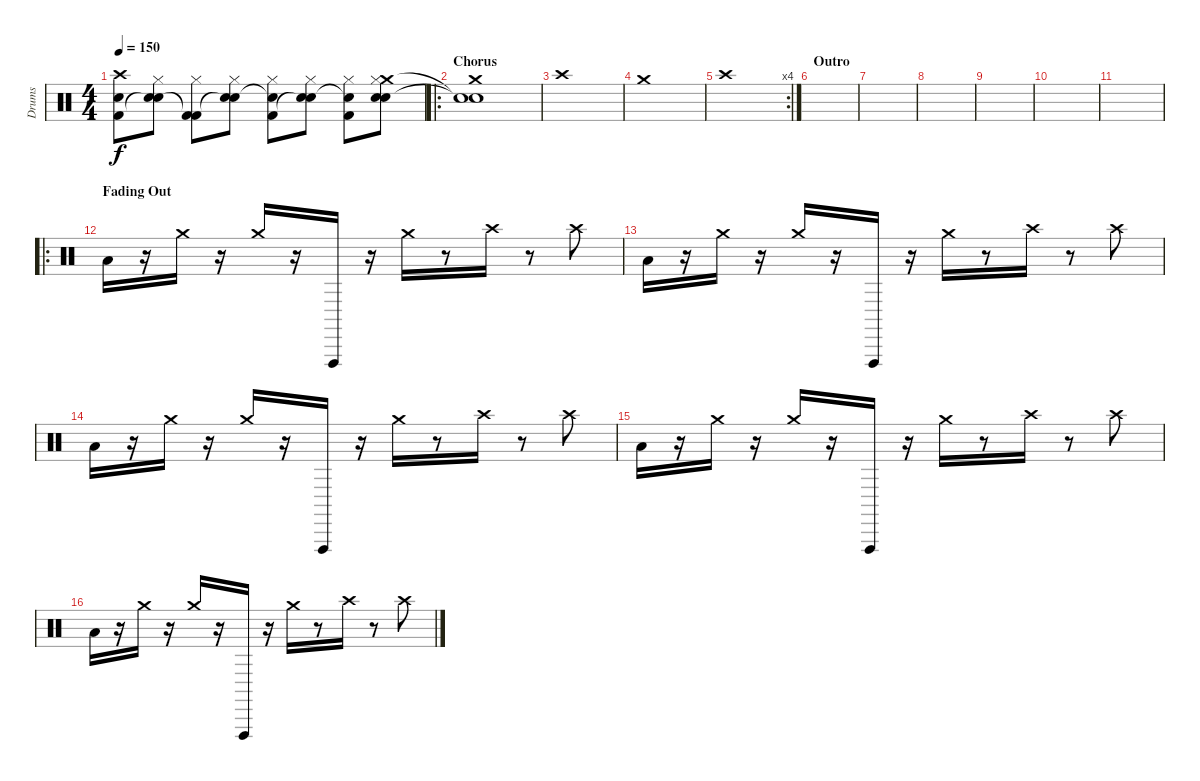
\track ("Drums" "Drums") {instrument percussion}
\staff {score}
\articulation defaults
\ts (4 4)
\tempo 150
\clef neutral
\ks c
("Crash high (hit)" "Snare (hit)"{t} "Kick (hit) 2").8{dy f} ("Hi-Hat (closed)" "Snare (hit) 2" "Snare (hit)"{t}).8 ("Hi-Hat (closed)" "Kick (hit) 2"{t} "Kick (hit) 2").8 ("Hi-Hat (closed)" "Snare (hit) 2" "Snare (hit)"{t}).8 ("Hi-Hat (closed)" "Snare (hit)"{t} "Kick (hit) 2").8 ("Hi-Hat (closed)" "Snare (hit) 2" "Snare (hit)"{t}).8 ("Hi-Hat (closed)" "Snare (hit)"{t} "Kick (hit) 2").8 ("Crash medium (hit)" "Hi-Hat (closed)" "Snare (hit) 2" "Snare (hit)"{t}).8 |
\ro
\section ("" "Chorus")
("Crash medium (hit)" "Snare (hit)"{t} "Snare (hit)"{t}).1 |
"Crash high (hit)".1 |
"Crash medium (hit)".1 |
\rc 4 "Crash high (hit)".1
|
\section ("" "Outro")
|
|
|
|
|
|
\ro
\section ("" "Fading Out")
"Low Floor Tom (hit)".16 r.16 "Crash medium (hit)".16 r.16 "Crash medium (hit)".16 r.16 "Vibraslap (hit)".16 r.16 "Crash medium (hit)".16 r.8 "Crash high (hit)".16 r.8 "Crash high (hit)".8 |
"Low Floor Tom (hit)".16 r.16 "Crash medium (hit)".16 r.16 "Crash medium (hit)".16 r.16 "Vibraslap (hit)".16 r.16 "Crash medium (hit)".16 r.8 "Crash high (hit)".16 r.8 "Crash high (hit)".8 |
"Low Floor Tom (hit)".16 r.16 "Crash medium (hit)".16 r.16 "Crash medium (hit)".16 r.16 "Vibraslap (hit)".16 r.16 "Crash medium (hit)".16 r.8 "Crash high (hit)".16 r.8 "Crash high (hit)".8 |
"Low Floor Tom (hit)".16 r.16 "Crash medium (hit)".16 r.16 "Crash medium (hit)".16 r.16 "Vibraslap (hit)".16 r.16 "Crash medium (hit)".16 r.8 "Crash high (hit)".16 r.8 "Crash high (hit)".8 |
"Low Floor Tom (hit)".16 r.16 "Crash medium (hit)".16 r.16 "Crash medium (hit)".16 r.16 "Vibraslap (hit)".16 r.16 "Crash medium (hit)".16 r.8 "Crash high (hit)".16 r.8 "Crash high (hit)".8
